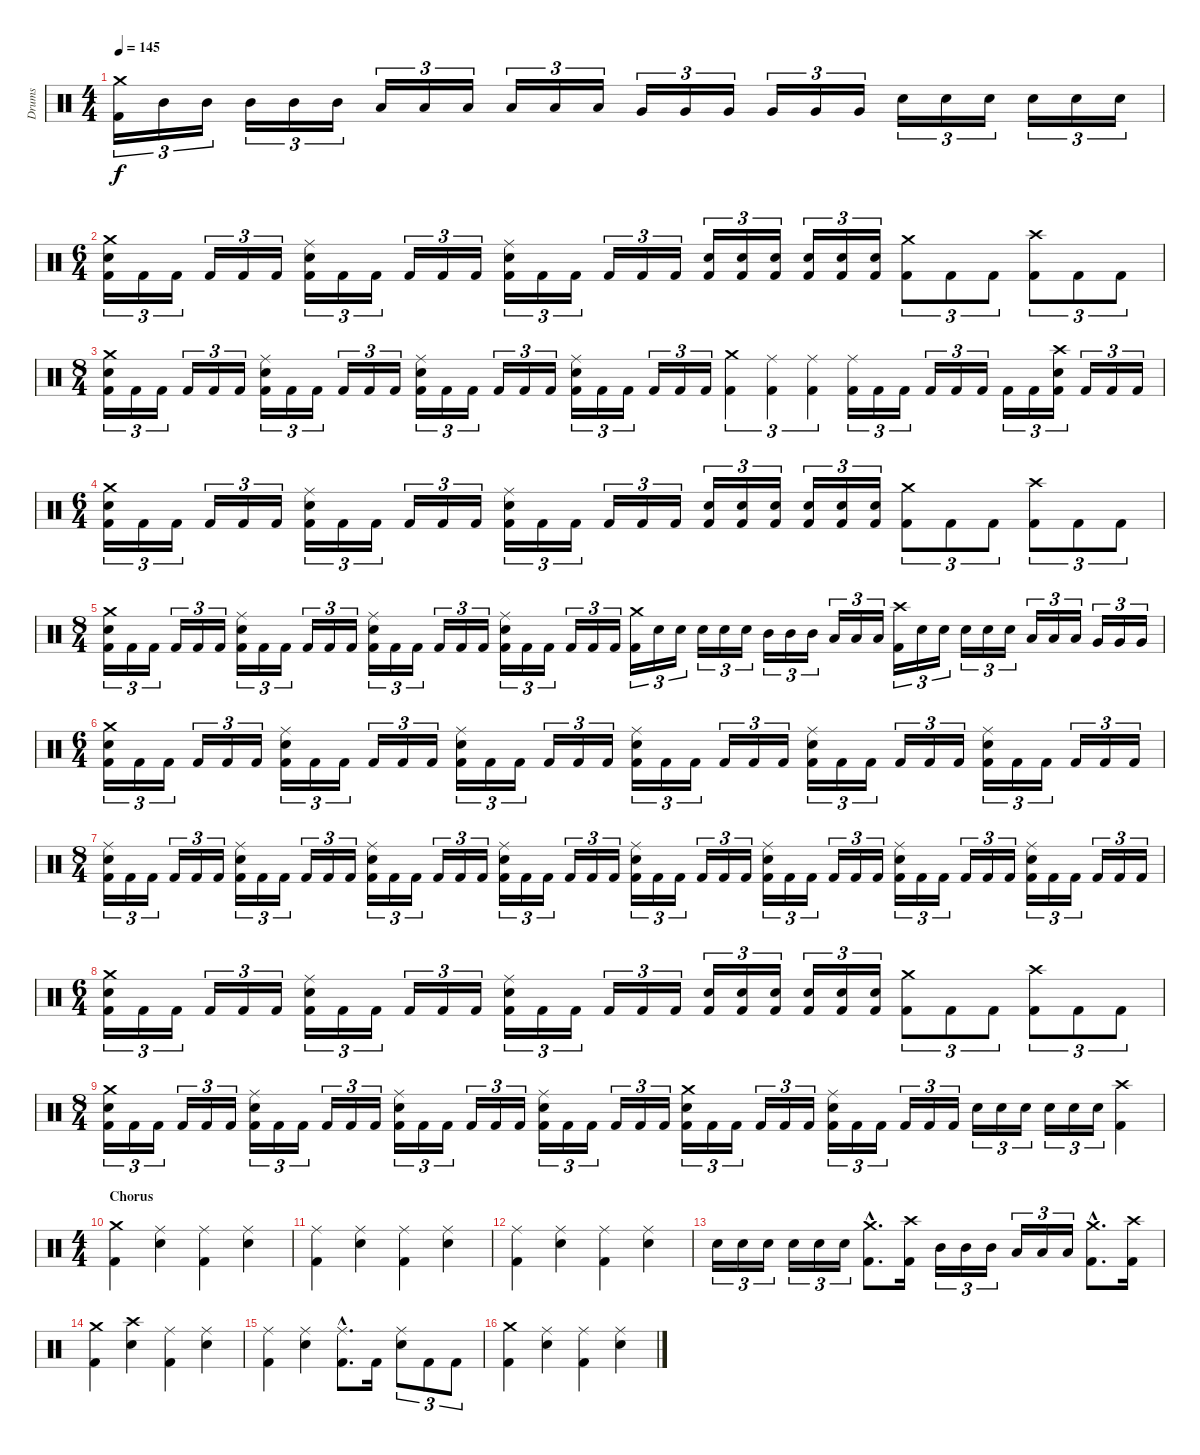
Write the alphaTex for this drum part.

\track ("Drums" "Drums") {instrument percussion}
\staff {score}
\articulation defaults
\ts (4 4)
\section ("" "")
\tempo 145
\clef neutral
\ks c
("Crash medium (hit)" "Kick (hit) 2").16{tu (3 2) dy f} "Mid Tom (hit)".16{tu (3 2)} "Mid Tom (hit)".16{tu (3 2)} "Mid Tom (hit)".16{tu (3 2)} "Mid Tom (hit)".16{tu (3 2)} "Mid Tom (hit)".16{tu (3 2)} "Low Tom (hit)".16{tu (3 2)} "Low Tom (hit)".16{tu (3 2)} "Low Tom (hit)".16{tu (3 2)} "Low Tom (hit)".16{tu (3 2)} "Low Tom (hit)".16{tu (3 2)} "Low Tom (hit)".16{tu (3 2)} "Very Low Tom (hit)".16{tu (3 2)} "Very Low Tom (hit)".16{tu (3 2)} "Very Low Tom (hit)".16{tu (3 2)} "Very Low Tom (hit)".16{tu (3 2)} "Very Low Tom (hit)".16{tu (3 2)} "Very Low Tom (hit)".16{tu (3 2)} "Electric Snare (hit)".16{tu (3 2)} "Electric Snare (hit)".16{tu (3 2)} "Electric Snare (hit)".16{tu (3 2)} "Electric Snare (hit)".16{tu (3 2)} "Electric Snare (hit)".16{tu (3 2)} "Electric Snare (hit)".16{tu (3 2)} |
\ts (6 4)
\section ("" "")
("Crash medium (hit)" "Electric Snare (hit)" "Kick (hit) 2").16{tu (3 2)} "Kick (hit) 2".16{tu (3 2)} "Kick (hit) 2".16{tu (3 2)} "Kick (hit) 2".16{tu (3 2)} "Kick (hit) 2".16{tu (3 2)} "Kick (hit) 2".16{tu (3 2)} ("Ride (middle)" "Electric Snare (hit)" "Kick (hit) 2").16{tu (3 2)} "Kick (hit) 2".16{tu (3 2)} "Kick (hit) 2".16{tu (3 2)} "Kick (hit) 2".16{tu (3 2)} "Kick (hit) 2".16{tu (3 2)} "Kick (hit) 2".16{tu (3 2)} ("Ride (middle)" "Electric Snare (hit)" "Kick (hit) 2").16{tu (3 2)} "Kick (hit) 2".16{tu (3 2)} "Kick (hit) 2".16{tu (3 2)} "Kick (hit) 2".16{tu (3 2)} "Kick (hit) 2".16{tu (3 2)} "Kick (hit) 2".16{tu (3 2)} ("Electric Snare (hit)" "Kick (hit) 2").16{tu (3 2)} ("Electric Snare (hit)" "Kick (hit) 2").16{tu (3 2)} ("Electric Snare (hit)" "Kick (hit) 2").16{tu (3 2)} ("Electric Snare (hit)" "Kick (hit) 2").16{tu (3 2)} ("Electric Snare (hit)" "Kick (hit) 2").16{tu (3 2)} ("Electric Snare (hit)" "Kick (hit) 2").16{tu (3 2)} ("Crash medium (hit)" "Kick (hit) 2").8{tu (3 2)} "Kick (hit) 2".8{tu (3 2)} "Kick (hit) 2".8{tu (3 2)} ("Crash high (hit)" "Kick (hit) 2").8{tu (3 2)} "Kick (hit) 2".8{tu (3 2)} "Kick (hit) 2".8{tu (3 2)} |
\ts (8 4)
("Crash medium (hit)" "Electric Snare (hit)" "Kick (hit) 2").16{tu (3 2)} "Kick (hit) 2".16{tu (3 2)} "Kick (hit) 2".16{tu (3 2)} "Kick (hit) 2".16{tu (3 2)} "Kick (hit) 2".16{tu (3 2)} "Kick (hit) 2".16{tu (3 2)} ("Ride (middle)" "Electric Snare (hit)" "Kick (hit) 2").16{tu (3 2)} "Kick (hit) 2".16{tu (3 2)} "Kick (hit) 2".16{tu (3 2)} "Kick (hit) 2".16{tu (3 2)} "Kick (hit) 2".16{tu (3 2)} "Kick (hit) 2".16{tu (3 2)} ("Ride (middle)" "Electric Snare (hit)" "Kick (hit) 2").16{tu (3 2)} "Kick (hit) 2".16{tu (3 2)} "Kick (hit) 2".16{tu (3 2)} "Kick (hit) 2".16{tu (3 2)} "Kick (hit) 2".16{tu (3 2)} "Kick (hit) 2".16{tu (3 2)} ("Ride (middle)" "Electric Snare (hit)" "Kick (hit) 2").16{tu (3 2)} "Kick (hit) 2".16{tu (3 2)} "Kick (hit) 2".16{tu (3 2)} "Kick (hit) 2".16{tu (3 2)} "Kick (hit) 2".16{tu (3 2)} "Kick (hit) 2".16{tu (3 2)} ("Crash medium (hit)" "Kick (hit) 2").4{tu (3 2)} ("Ride (middle)" "Kick (hit) 2").4{tu (3 2)} ("Ride (middle)" "Kick (hit) 2").4{tu (3 2)} ("Ride (middle)" "Kick (hit) 2").16{tu (3 2)} "Kick (hit) 2".16{tu (3 2)} "Kick (hit) 2".16{tu (3 2)} "Kick (hit) 2".16{tu (3 2)} "Kick (hit) 2".16{tu (3 2)} "Kick (hit) 2".16{tu (3 2)} "Kick (hit) 2".16{tu (3 2)} "Kick (hit) 2".16{tu (3 2)} ("Crash high (hit)" "Electric Snare (hit)" "Kick (hit) 2").16{tu (3 2)} "Kick (hit) 2".16{tu (3 2)} "Kick (hit) 2".16{tu (3 2)} "Kick (hit) 2".16{tu (3 2)} |
\ts (6 4)
("Crash medium (hit)" "Electric Snare (hit)" "Kick (hit) 2").16{tu (3 2)} "Kick (hit) 2".16{tu (3 2)} "Kick (hit) 2".16{tu (3 2)} "Kick (hit) 2".16{tu (3 2)} "Kick (hit) 2".16{tu (3 2)} "Kick (hit) 2".16{tu (3 2)} ("Ride (middle)" "Electric Snare (hit)" "Kick (hit) 2").16{tu (3 2)} "Kick (hit) 2".16{tu (3 2)} "Kick (hit) 2".16{tu (3 2)} "Kick (hit) 2".16{tu (3 2)} "Kick (hit) 2".16{tu (3 2)} "Kick (hit) 2".16{tu (3 2)} ("Ride (middle)" "Electric Snare (hit)" "Kick (hit) 2").16{tu (3 2)} "Kick (hit) 2".16{tu (3 2)} "Kick (hit) 2".16{tu (3 2)} "Kick (hit) 2".16{tu (3 2)} "Kick (hit) 2".16{tu (3 2)} "Kick (hit) 2".16{tu (3 2)} ("Electric Snare (hit)" "Kick (hit) 2").16{tu (3 2)} ("Electric Snare (hit)" "Kick (hit) 2").16{tu (3 2)} ("Electric Snare (hit)" "Kick (hit) 2").16{tu (3 2)} ("Electric Snare (hit)" "Kick (hit) 2").16{tu (3 2)} ("Electric Snare (hit)" "Kick (hit) 2").16{tu (3 2)} ("Electric Snare (hit)" "Kick (hit) 2").16{tu (3 2)} ("Crash medium (hit)" "Kick (hit) 2").8{tu (3 2)} "Kick (hit) 2".8{tu (3 2)} "Kick (hit) 2".8{tu (3 2)} ("Crash high (hit)" "Kick (hit) 2").8{tu (3 2)} "Kick (hit) 2".8{tu (3 2)} "Kick (hit) 2".8{tu (3 2)} |
\ts (8 4)
("Crash medium (hit)" "Electric Snare (hit)" "Kick (hit) 2").16{tu (3 2)} "Kick (hit) 2".16{tu (3 2)} "Kick (hit) 2".16{tu (3 2)} "Kick (hit) 2".16{tu (3 2)} "Kick (hit) 2".16{tu (3 2)} "Kick (hit) 2".16{tu (3 2)} ("Ride (middle)" "Electric Snare (hit)" "Kick (hit) 2").16{tu (3 2)} "Kick (hit) 2".16{tu (3 2)} "Kick (hit) 2".16{tu (3 2)} "Kick (hit) 2".16{tu (3 2)} "Kick (hit) 2".16{tu (3 2)} "Kick (hit) 2".16{tu (3 2)} ("Ride (middle)" "Electric Snare (hit)" "Kick (hit) 2").16{tu (3 2)} "Kick (hit) 2".16{tu (3 2)} "Kick (hit) 2".16{tu (3 2)} "Kick (hit) 2".16{tu (3 2)} "Kick (hit) 2".16{tu (3 2)} "Kick (hit) 2".16{tu (3 2)} ("Ride (middle)" "Electric Snare (hit)" "Kick (hit) 2").16{tu (3 2)} "Kick (hit) 2".16{tu (3 2)} "Kick (hit) 2".16{tu (3 2)} "Kick (hit) 2".16{tu (3 2)} "Kick (hit) 2".16{tu (3 2)} "Kick (hit) 2".16{tu (3 2)} ("Crash medium (hit)" "Kick (hit) 2").16{tu (3 2)} "Electric Snare (hit)".16{tu (3 2)} "Electric Snare (hit)".16{tu (3 2)} "Electric Snare (hit)".16{tu (3 2)} "Electric Snare (hit)".16{tu (3 2)} "Electric Snare (hit)".16{tu (3 2)} "Mid Tom (hit)".16{tu (3 2)} "Mid Tom (hit)".16{tu (3 2)} "Mid Tom (hit)".16{tu (3 2)} "Low Tom (hit)".16{tu (3 2)} "Low Tom (hit)".16{tu (3 2)} "Low Tom (hit)".16{tu (3 2)} ("Crash high (hit)" "Kick (hit) 2").16{tu (3 2)} "Electric Snare (hit)".16{tu (3 2)} "Electric Snare (hit)".16{tu (3 2)} "Electric Snare (hit)".16{tu (3 2)} "Electric Snare (hit)".16{tu (3 2)} "Electric Snare (hit)".16{tu (3 2)} "Low Tom (hit)".16{tu (3 2)} "Low Tom (hit)".16{tu (3 2)} "Low Tom (hit)".16{tu (3 2)} "Very Low Tom (hit)".16{tu (3 2)} "Very Low Tom (hit)".16{tu (3 2)} "Very Low Tom (hit)".16{tu (3 2)} |
\ts (6 4)
("Crash medium (hit)" "Electric Snare (hit)" "Kick (hit) 2").16{tu (3 2)} "Kick (hit) 2".16{tu (3 2)} "Kick (hit) 2".16{tu (3 2)} "Kick (hit) 2".16{tu (3 2)} "Kick (hit) 2".16{tu (3 2)} "Kick (hit) 2".16{tu (3 2)} ("Ride (middle)" "Electric Snare (hit)" "Kick (hit) 2").16{tu (3 2)} "Kick (hit) 2".16{tu (3 2)} "Kick (hit) 2".16{tu (3 2)} "Kick (hit) 2".16{tu (3 2)} "Kick (hit) 2".16{tu (3 2)} "Kick (hit) 2".16{tu (3 2)} ("Ride (middle)" "Electric Snare (hit)" "Kick (hit) 2").16{tu (3 2)} "Kick (hit) 2".16{tu (3 2)} "Kick (hit) 2".16{tu (3 2)} "Kick (hit) 2".16{tu (3 2)} "Kick (hit) 2".16{tu (3 2)} "Kick (hit) 2".16{tu (3 2)} ("Ride (middle)" "Electric Snare (hit)" "Kick (hit) 2").16{tu (3 2)} "Kick (hit) 2".16{tu (3 2)} "Kick (hit) 2".16{tu (3 2)} "Kick (hit) 2".16{tu (3 2)} "Kick (hit) 2".16{tu (3 2)} "Kick (hit) 2".16{tu (3 2)} ("Ride (middle)" "Electric Snare (hit)" "Kick (hit) 2").16{tu (3 2)} "Kick (hit) 2".16{tu (3 2)} "Kick (hit) 2".16{tu (3 2)} "Kick (hit) 2".16{tu (3 2)} "Kick (hit) 2".16{tu (3 2)} "Kick (hit) 2".16{tu (3 2)} ("Ride (middle)" "Electric Snare (hit)" "Kick (hit) 2").16{tu (3 2)} "Kick (hit) 2".16{tu (3 2)} "Kick (hit) 2".16{tu (3 2)} "Kick (hit) 2".16{tu (3 2)} "Kick (hit) 2".16{tu (3 2)} "Kick (hit) 2".16{tu (3 2)} |
\ts (8 4)
("Ride (middle)" "Electric Snare (hit)" "Kick (hit) 2").16{tu (3 2)} "Kick (hit) 2".16{tu (3 2)} "Kick (hit) 2".16{tu (3 2)} "Kick (hit) 2".16{tu (3 2)} "Kick (hit) 2".16{tu (3 2)} "Kick (hit) 2".16{tu (3 2)} ("Ride (middle)" "Electric Snare (hit)" "Kick (hit) 2").16{tu (3 2)} "Kick (hit) 2".16{tu (3 2)} "Kick (hit) 2".16{tu (3 2)} "Kick (hit) 2".16{tu (3 2)} "Kick (hit) 2".16{tu (3 2)} "Kick (hit) 2".16{tu (3 2)} ("Ride (middle)" "Electric Snare (hit)" "Kick (hit) 2").16{tu (3 2)} "Kick (hit) 2".16{tu (3 2)} "Kick (hit) 2".16{tu (3 2)} "Kick (hit) 2".16{tu (3 2)} "Kick (hit) 2".16{tu (3 2)} "Kick (hit) 2".16{tu (3 2)} ("Ride (middle)" "Electric Snare (hit)" "Kick (hit) 2").16{tu (3 2)} "Kick (hit) 2".16{tu (3 2)} "Kick (hit) 2".16{tu (3 2)} "Kick (hit) 2".16{tu (3 2)} "Kick (hit) 2".16{tu (3 2)} "Kick (hit) 2".16{tu (3 2)} ("Ride (middle)" "Electric Snare (hit)" "Kick (hit) 2").16{tu (3 2)} "Kick (hit) 2".16{tu (3 2)} "Kick (hit) 2".16{tu (3 2)} "Kick (hit) 2".16{tu (3 2)} "Kick (hit) 2".16{tu (3 2)} "Kick (hit) 2".16{tu (3 2)} ("Ride (middle)" "Electric Snare (hit)" "Kick (hit) 2").16{tu (3 2)} "Kick (hit) 2".16{tu (3 2)} "Kick (hit) 2".16{tu (3 2)} "Kick (hit) 2".16{tu (3 2)} "Kick (hit) 2".16{tu (3 2)} "Kick (hit) 2".16{tu (3 2)} ("Ride (middle)" "Electric Snare (hit)" "Kick (hit) 2").16{tu (3 2)} "Kick (hit) 2".16{tu (3 2)} "Kick (hit) 2".16{tu (3 2)} "Kick (hit) 2".16{tu (3 2)} "Kick (hit) 2".16{tu (3 2)} "Kick (hit) 2".16{tu (3 2)} ("Ride (middle)" "Electric Snare (hit)" "Kick (hit) 2").16{tu (3 2)} "Kick (hit) 2".16{tu (3 2)} "Kick (hit) 2".16{tu (3 2)} "Kick (hit) 2".16{tu (3 2)} "Kick (hit) 2".16{tu (3 2)} "Kick (hit) 2".16{tu (3 2)} |
\ts (6 4)
("Crash medium (hit)" "Electric Snare (hit)" "Kick (hit) 2").16{tu (3 2)} "Kick (hit) 2".16{tu (3 2)} "Kick (hit) 2".16{tu (3 2)} "Kick (hit) 2".16{tu (3 2)} "Kick (hit) 2".16{tu (3 2)} "Kick (hit) 2".16{tu (3 2)} ("Ride (middle)" "Electric Snare (hit)" "Kick (hit) 2").16{tu (3 2)} "Kick (hit) 2".16{tu (3 2)} "Kick (hit) 2".16{tu (3 2)} "Kick (hit) 2".16{tu (3 2)} "Kick (hit) 2".16{tu (3 2)} "Kick (hit) 2".16{tu (3 2)} ("Ride (middle)" "Electric Snare (hit)" "Kick (hit) 2").16{tu (3 2)} "Kick (hit) 2".16{tu (3 2)} "Kick (hit) 2".16{tu (3 2)} "Kick (hit) 2".16{tu (3 2)} "Kick (hit) 2".16{tu (3 2)} "Kick (hit) 2".16{tu (3 2)} ("Electric Snare (hit)" "Kick (hit) 2").16{tu (3 2)} ("Electric Snare (hit)" "Kick (hit) 2").16{tu (3 2)} ("Electric Snare (hit)" "Kick (hit) 2").16{tu (3 2)} ("Electric Snare (hit)" "Kick (hit) 2").16{tu (3 2)} ("Electric Snare (hit)" "Kick (hit) 2").16{tu (3 2)} ("Electric Snare (hit)" "Kick (hit) 2").16{tu (3 2)} ("Crash medium (hit)" "Kick (hit) 2").8{tu (3 2)} "Kick (hit) 2".8{tu (3 2)} "Kick (hit) 2".8{tu (3 2)} ("Crash high (hit)" "Kick (hit) 2").8{tu (3 2)} "Kick (hit) 2".8{tu (3 2)} "Kick (hit) 2".8{tu (3 2)} |
\ts (8 4)
("Crash medium (hit)" "Electric Snare (hit)" "Kick (hit) 2").16{tu (3 2)} "Kick (hit) 2".16{tu (3 2)} "Kick (hit) 2".16{tu (3 2)} "Kick (hit) 2".16{tu (3 2)} "Kick (hit) 2".16{tu (3 2)} "Kick (hit) 2".16{tu (3 2)} ("Ride (middle)" "Electric Snare (hit)" "Kick (hit) 2").16{tu (3 2)} "Kick (hit) 2".16{tu (3 2)} "Kick (hit) 2".16{tu (3 2)} "Kick (hit) 2".16{tu (3 2)} "Kick (hit) 2".16{tu (3 2)} "Kick (hit) 2".16{tu (3 2)} ("Ride (middle)" "Electric Snare (hit)" "Kick (hit) 2").16{tu (3 2)} "Kick (hit) 2".16{tu (3 2)} "Kick (hit) 2".16{tu (3 2)} "Kick (hit) 2".16{tu (3 2)} "Kick (hit) 2".16{tu (3 2)} "Kick (hit) 2".16{tu (3 2)} ("Ride (middle)" "Electric Snare (hit)" "Kick (hit) 2").16{tu (3 2)} "Kick (hit) 2".16{tu (3 2)} "Kick (hit) 2".16{tu (3 2)} "Kick (hit) 2".16{tu (3 2)} "Kick (hit) 2".16{tu (3 2)} "Kick (hit) 2".16{tu (3 2)} ("Crash medium (hit)" "Electric Snare (hit)" "Kick (hit) 2").16{tu (3 2)} "Kick (hit) 2".16{tu (3 2)} "Kick (hit) 2".16{tu (3 2)} "Kick (hit) 2".16{tu (3 2)} "Kick (hit) 2".16{tu (3 2)} "Kick (hit) 2".16{tu (3 2)} ("Ride (middle)" "Electric Snare (hit)" "Kick (hit) 2").16{tu (3 2)} "Kick (hit) 2".16{tu (3 2)} "Kick (hit) 2".16{tu (3 2)} "Kick (hit) 2".16{tu (3 2)} "Kick (hit) 2".16{tu (3 2)} "Kick (hit) 2".16{tu (3 2)} "Electric Snare (hit)".16{tu (3 2)} "Electric Snare (hit)".16{tu (3 2)} "Electric Snare (hit)".16{tu (3 2)} "Electric Snare (hit)".16{tu (3 2)} "Electric Snare (hit)".16{tu (3 2)} "Electric Snare (hit)".16{tu (3 2)} ("Crash high (hit)" "Kick (hit) 2").4 |
\ts (4 4)
\section ("" "Chorus")
("Crash medium (hit)" "Kick (hit) 2").4 ("Ride (middle)" "Electric Snare (hit)").4 ("Ride (middle)" "Kick (hit) 2").4 ("Ride (middle)" "Electric Snare (hit)").4 |
("Ride (middle)" "Kick (hit) 2").4 ("Ride (middle)" "Electric Snare (hit)").4 ("Ride (middle)" "Kick (hit) 2").4 ("Ride (middle)" "Electric Snare (hit)").4 |
("Ride (middle)" "Kick (hit) 2").4 ("Ride (middle)" "Electric Snare (hit)").4 ("Ride (middle)" "Kick (hit) 2").4 ("Ride (middle)" "Electric Snare (hit)").4 |
"Electric Snare (hit)".16{tu (3 2)} "Electric Snare (hit)".16{tu (3 2)} "Electric Snare (hit)".16{tu (3 2)} "Electric Snare (hit)".16{tu (3 2)} "Electric Snare (hit)".16{tu (3 2)} "Electric Snare (hit)".16{tu (3 2)} ("Crash medium (hit)"{hac} "Kick (hit) 2"{hac}).8{d} ("Crash high (hit)" "Kick (hit) 2").16 "Mid Tom (hit)".16{tu (3 2)} "Mid Tom (hit)".16{tu (3 2)} "Mid Tom (hit)".16{tu (3 2)} "Low Tom (hit)".16{tu (3 2)} "Low Tom (hit)".16{tu (3 2)} "Low Tom (hit)".16{tu (3 2)} ("Crash medium (hit)"{hac} "Kick (hit) 2"{hac}).8{d} ("Crash high (hit)" "Kick (hit) 2").16 |
("Crash medium (hit)" "Kick (hit) 2").4 ("Crash high (hit)" "Electric Snare (hit)").4 ("Ride (middle)" "Kick (hit) 2").4 ("Ride (middle)" "Electric Snare (hit)").4 |
("Ride (middle)" "Kick (hit) 2").4 ("Ride (middle)" "Electric Snare (hit)").4 ("Ride (middle)"{hac} "Kick (hit) 2"{hac}).8{d} "Kick (hit) 2".16 ("Ride (middle)" "Electric Snare (hit)").8{tu (3 2)} "Kick (hit) 2".8{tu (3 2)} "Kick (hit) 2".8{tu (3 2)} |
("Crash medium (hit)" "Kick (hit) 2").4 ("Ride (middle)" "Electric Snare (hit)").4 ("Ride (middle)" "Kick (hit) 2").4 ("Ride (middle)" "Electric Snare (hit)").4
